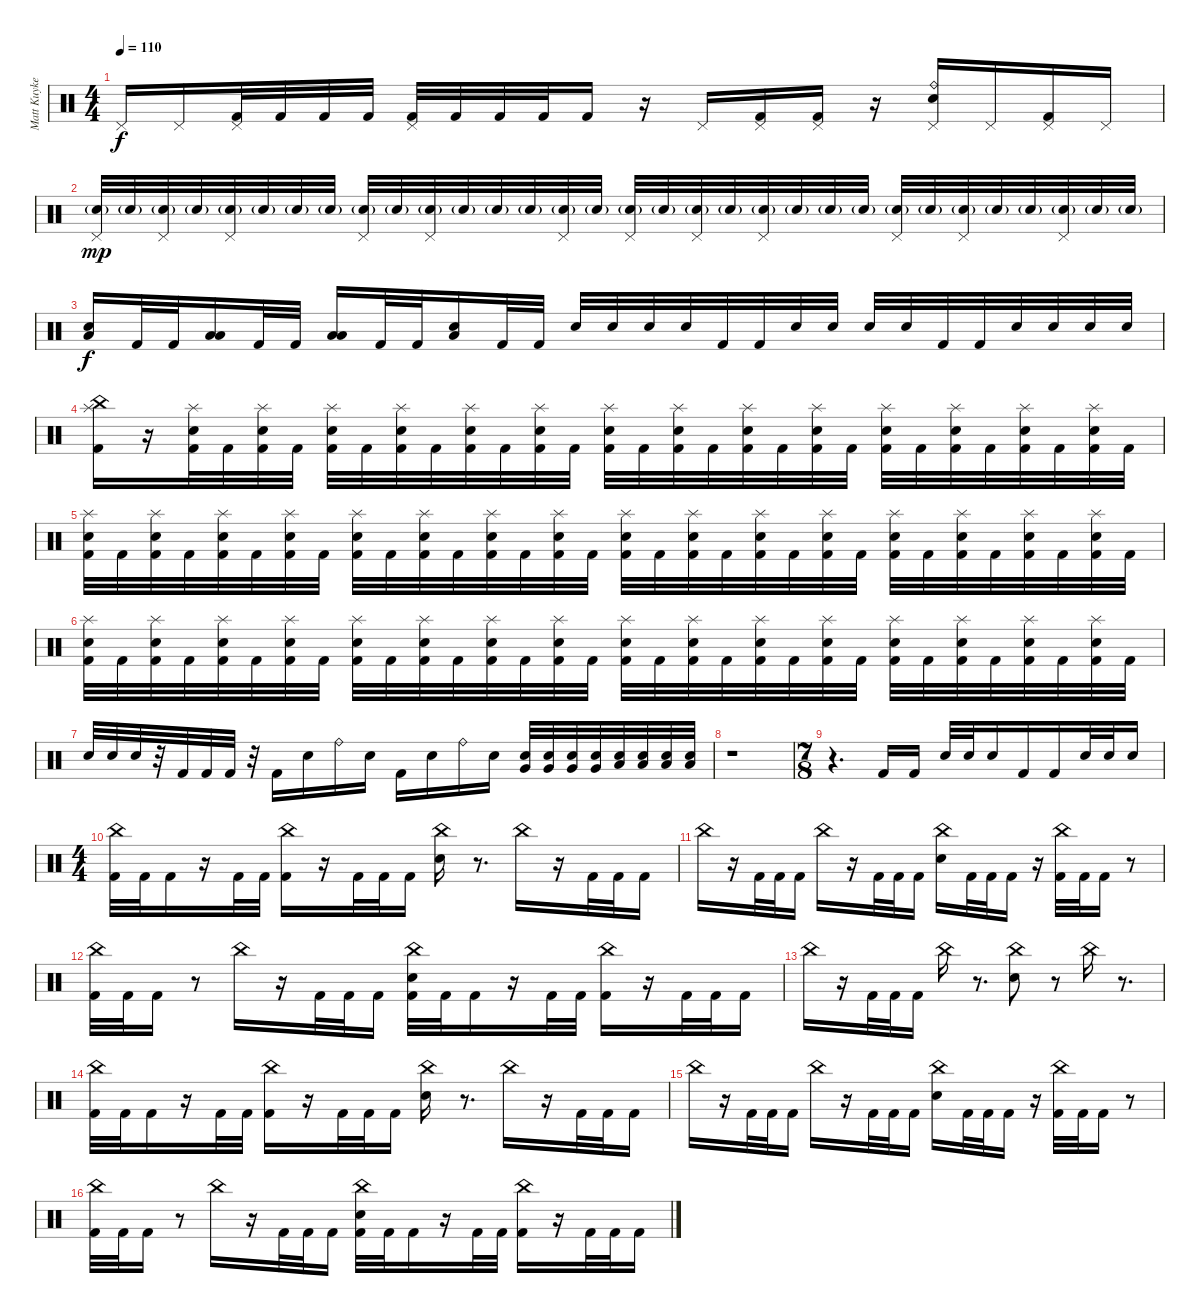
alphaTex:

\track ("Matt Kuykendall (Drums)" "Matt Kuyke") {instrument percussion}
\staff {score}
\articulation defaults
\ts (4 4)
\tempo 110
\clef neutral
\ks c "Pedal Hi-Hat (hit)".16{dy f} "Pedal Hi-Hat (hit)".16
("Pedal Hi-Hat (hit)" "Kick (hit) 2").32 "Kick (hit) 2".32 "Kick (hit) 2".32 "Kick (hit) 2".32 ("Pedal Hi-Hat (hit)" "Kick (hit) 2").32 "Kick (hit) 2".32 "Kick (hit) 2".32 "Kick (hit) 2".32 "Kick (hit) 2".16 r.16 "Pedal Hi-Hat (hit)".16 ("Pedal Hi-Hat (hit)" "Kick (hit) 2").16 ("Pedal Hi-Hat (hit)" "Kick (hit) 2").16 r.16 ("Ride (bell)" "Pedal Hi-Hat (hit)" "Snare (hit) 2").16 "Pedal Hi-Hat (hit)".16 ("Pedal Hi-Hat (hit)" "Kick (hit) 2").16 "Pedal Hi-Hat (hit)".16 |
("Pedal Hi-Hat (hit)" "Snare (hit) 2"{g}).32{dy mp} "Snare (hit) 2"{g}.32 ("Pedal Hi-Hat (hit)" "Snare (hit) 2"{g}).32 "Snare (hit) 2"{g}.32 ("Pedal Hi-Hat (hit)" "Snare (hit) 2"{g}).32 "Snare (hit) 2"{g}.32 "Snare (hit) 2"{g}.32 "Snare (hit) 2"{g}.32 ("Pedal Hi-Hat (hit)" "Snare (hit) 2"{g}).32 "Snare (hit) 2"{g}.32 ("Pedal Hi-Hat (hit)" "Snare (hit) 2"{g}).32 "Snare (hit) 2"{g}.32 "Snare (hit) 2"{g}.32 "Snare (hit) 2"{g}.32 ("Pedal Hi-Hat (hit)" "Snare (hit) 2"{g}).32 "Snare (hit) 2"{g}.32 ("Pedal Hi-Hat (hit)" "Snare (hit) 2"{g}).32 "Snare (hit) 2"{g}.32 ("Pedal Hi-Hat (hit)" "Snare (hit) 2"{g}).32 "Snare (hit) 2"{g}.32 ("Pedal Hi-Hat (hit)" "Snare (hit) 2"{g}).32 "Snare (hit) 2"{g}.32 "Snare (hit) 2"{g}.32 "Snare (hit) 2"{g}.32 ("Pedal Hi-Hat (hit)" "Snare (hit) 2"{g}).32 "Snare (hit) 2"{g}.32 ("Pedal Hi-Hat (hit)" "Snare (hit) 2"{g}).32 "Snare (hit) 2"{g}.32 "Snare (hit) 2"{g}.32 ("Pedal Hi-Hat (hit)" "Snare (hit) 2"{g}).32 "Snare (hit) 2"{g}.32 "Snare (hit) 2"{g}.32 |
("Low Tom (hit)" "Snare (hit) 2").16{dy f} "Kick (hit) 2".32 "Kick (hit) 2".32 ("Low Tom (hit)" "Low Floor Tom (hit)").16 "Kick (hit) 2".32 "Kick (hit) 2".32 ("Low Floor Tom (hit)" "Low Floor Tom (hit)").16 "Kick (hit) 2".32 "Kick (hit) 2".32 ("Snare (hit) 2" "Low Floor Tom (hit)").16 "Kick (hit) 2".32 "Kick (hit) 2".32 "Snare (hit) 2".32 "Snare (hit) 2".32 "Snare (hit) 2".32 "Snare (hit) 2".32 "Kick (hit) 2".32 "Kick (hit) 2".32 "Snare (hit) 2".32 "Snare (hit) 2".32 "Snare (hit) 2".32 "Snare (hit) 2".32 "Kick (hit) 2".32 "Kick (hit) 2".32 "Snare (hit) 2".32 "Snare (hit) 2".32 "Snare (hit) 2".32 "Snare (hit) 2".32 |
("China (hit)" "Splash (hit)" "Kick (hit) 2").16 r.16 ("Splash (hit)" "Snare (hit) 2" "Kick (hit) 2").32 "Kick (hit) 2".32 ("Splash (hit)" "Snare (hit) 2" "Kick (hit) 2").32 "Kick (hit) 2".32 ("Splash (hit)" "Snare (hit) 2" "Kick (hit) 2").32 "Kick (hit) 2".32 ("Splash (hit)" "Snare (hit) 2" "Kick (hit) 2").32 "Kick (hit) 2".32 ("Splash (hit)" "Snare (hit) 2" "Kick (hit) 2").32 "Kick (hit) 2".32 ("Splash (hit)" "Snare (hit) 2" "Kick (hit) 2").32 "Kick (hit) 2".32 ("Splash (hit)" "Snare (hit) 2" "Kick (hit) 2").32 "Kick (hit) 2".32 ("Splash (hit)" "Snare (hit) 2" "Kick (hit) 2").32 "Kick (hit) 2".32 ("Splash (hit)" "Snare (hit) 2" "Kick (hit) 2").32 "Kick (hit) 2".32 ("Splash (hit)" "Snare (hit) 2" "Kick (hit) 2").32 "Kick (hit) 2".32 ("Splash (hit)" "Snare (hit) 2" "Kick (hit) 2").32 "Kick (hit) 2".32 ("Splash (hit)" "Snare (hit) 2" "Kick (hit) 2").32 "Kick (hit) 2".32 ("Splash (hit)" "Snare (hit) 2" "Kick (hit) 2").32 "Kick (hit) 2".32 ("Splash (hit)" "Snare (hit) 2" "Kick (hit) 2").32 "Kick (hit) 2".32 |
("Splash (hit)" "Snare (hit) 2" "Kick (hit) 2").32 "Kick (hit) 2".32 ("Splash (hit)" "Snare (hit) 2" "Kick (hit) 2").32 "Kick (hit) 2".32 ("Splash (hit)" "Snare (hit) 2" "Kick (hit) 2").32 "Kick (hit) 2".32 ("Splash (hit)" "Snare (hit) 2" "Kick (hit) 2").32 "Kick (hit) 2".32 ("Splash (hit)" "Snare (hit) 2" "Kick (hit) 2").32 "Kick (hit) 2".32 ("Splash (hit)" "Snare (hit) 2" "Kick (hit) 2").32 "Kick (hit) 2".32 ("Splash (hit)" "Snare (hit) 2" "Kick (hit) 2").32 "Kick (hit) 2".32 ("Splash (hit)" "Snare (hit) 2" "Kick (hit) 2").32 "Kick (hit) 2".32 ("Splash (hit)" "Snare (hit) 2" "Kick (hit) 2").32 "Kick (hit) 2".32 ("Splash (hit)" "Snare (hit) 2" "Kick (hit) 2").32 "Kick (hit) 2".32 ("Splash (hit)" "Snare (hit) 2" "Kick (hit) 2").32 "Kick (hit) 2".32 ("Splash (hit)" "Snare (hit) 2" "Kick (hit) 2").32 "Kick (hit) 2".32 ("Splash (hit)" "Snare (hit) 2" "Kick (hit) 2").32 "Kick (hit) 2".32 ("Splash (hit)" "Snare (hit) 2" "Kick (hit) 2").32 "Kick (hit) 2".32 ("Splash (hit)" "Snare (hit) 2" "Kick (hit) 2").32 "Kick (hit) 2".32 ("Splash (hit)" "Snare (hit) 2" "Kick (hit) 2").32 "Kick (hit) 2".32 |
("Splash (hit)" "Snare (hit) 2" "Kick (hit) 2").32 "Kick (hit) 2".32 ("Splash (hit)" "Snare (hit) 2" "Kick (hit) 2").32 "Kick (hit) 2".32 ("Splash (hit)" "Snare (hit) 2" "Kick (hit) 2").32 "Kick (hit) 2".32 ("Splash (hit)" "Snare (hit) 2" "Kick (hit) 2").32 "Kick (hit) 2".32 ("Splash (hit)" "Snare (hit) 2" "Kick (hit) 2").32 "Kick (hit) 2".32 ("Splash (hit)" "Snare (hit) 2" "Kick (hit) 2").32 "Kick (hit) 2".32 ("Splash (hit)" "Snare (hit) 2" "Kick (hit) 2").32 "Kick (hit) 2".32 ("Splash (hit)" "Snare (hit) 2" "Kick (hit) 2").32 "Kick (hit) 2".32 ("Splash (hit)" "Snare (hit) 2" "Kick (hit) 2").32 "Kick (hit) 2".32 ("Splash (hit)" "Snare (hit) 2" "Kick (hit) 2").32 "Kick (hit) 2".32 ("Splash (hit)" "Snare (hit) 2" "Kick (hit) 2").32 "Kick (hit) 2".32 ("Splash (hit)" "Snare (hit) 2" "Kick (hit) 2").32 "Kick (hit) 2".32 ("Splash (hit)" "Snare (hit) 2" "Kick (hit) 2").32 "Kick (hit) 2".32 ("Splash (hit)" "Snare (hit) 2" "Kick (hit) 2").32 "Kick (hit) 2".32 ("Splash (hit)" "Snare (hit) 2" "Kick (hit) 2").32 "Kick (hit) 2".32 ("Splash (hit)" "Snare (hit) 2" "Kick (hit) 2").32 "Kick (hit) 2".32 |
"Snare (hit) 2".32 "Snare (hit) 2".32 "Snare (hit) 2".32 r.32 "Kick (hit) 2".32 "Kick (hit) 2".32 "Kick (hit) 2".32 r.32 "Kick (hit) 2".16 "Snare (hit) 2".16 "Ride (bell)".16 "Snare (hit) 2".16 "Kick (hit) 2".16 "Snare (hit) 2".16 "Ride (bell)".16 "Snare (hit) 2".16 ("Very Low Tom (hit)" "Snare (hit) 2").32 ("Very Low Tom (hit)" "Snare (hit) 2").32 ("Very Low Tom (hit)" "Snare (hit) 2").32 ("Very Low Tom (hit)" "Snare (hit) 2").32 ("Low Floor Tom (hit)" "Snare (hit) 2").32 ("Low Floor Tom (hit)" "Snare (hit) 2").32 ("Low Floor Tom (hit)" "Snare (hit) 2").32 ("Low Floor Tom (hit)" "Snare (hit) 2").32 |
r.1 |
\ts (7 8)
r.4{d} "Kick (hit) 2".16 "Kick (hit) 2".16 "Snare (hit) 2".32 "Snare (hit) 2".32 "Snare (hit) 2".16 "Kick (hit) 2".16 "Kick (hit) 2".16 "Snare (hit) 2".32 "Snare (hit) 2".32 "Snare (hit) 2".16 |
\ts (4 4)
("China (hit)" "Kick (hit) 2").32 "Kick (hit) 2".32 "Kick (hit) 2".16 r.16 "Kick (hit) 2".32 "Kick (hit) 2".32 ("China (hit)" "Kick (hit) 2").16 r.16 "Kick (hit) 2".32 "Kick (hit) 2".32 "Kick (hit) 2".16 ("China (hit)" "Snare (hit) 2").16 r.8{d} "China (hit)".16 r.16 "Kick (hit) 2".32 "Kick (hit) 2".32 "Kick (hit) 2".16 |
"China (hit)".16 r.16 "Kick (hit) 2".32 "Kick (hit) 2".32 "Kick (hit) 2".16 "China (hit)".16 r.16 "Kick (hit) 2".32 "Kick (hit) 2".32 "Kick (hit) 2".16 ("China (hit)" "Snare (hit) 2").16 "Kick (hit) 2".32 "Kick (hit) 2".32 "Kick (hit) 2".16 r.16 ("China (hit)" "Kick (hit) 2").32 "Kick (hit) 2".32 "Kick (hit) 2".16 r.8 |
("China (hit)" "Kick (hit) 2").32 "Kick (hit) 2".32 "Kick (hit) 2".16 r.8 "China (hit)".16 r.16 "Kick (hit) 2".32 "Kick (hit) 2".32 "Kick (hit) 2".16 ("China (hit)" "Snare (hit) 2" "Kick (hit) 2").32 "Kick (hit) 2".32 "Kick (hit) 2".16 r.16 "Kick (hit) 2".32 "Kick (hit) 2".32 ("China (hit)" "Kick (hit) 2").16 r.16 "Kick (hit) 2".32 "Kick (hit) 2".32 "Kick (hit) 2".16 |
"China (hit)".16 r.16 "Kick (hit) 2".32 "Kick (hit) 2".32 "Kick (hit) 2".16 "China (hit)".16 r.8{d} ("China (hit)" "Snare (hit) 2").8 r.8 "China (hit)".16 r.8{d} |
("China (hit)" "Kick (hit) 2").32 "Kick (hit) 2".32 "Kick (hit) 2".16 r.16 "Kick (hit) 2".32 "Kick (hit) 2".32 ("China (hit)" "Kick (hit) 2").16 r.16 "Kick (hit) 2".32 "Kick (hit) 2".32 "Kick (hit) 2".16 ("China (hit)" "Snare (hit) 2").16 r.8{d} "China (hit)".16 r.16 "Kick (hit) 2".32 "Kick (hit) 2".32 "Kick (hit) 2".16 |
"China (hit)".16 r.16 "Kick (hit) 2".32 "Kick (hit) 2".32 "Kick (hit) 2".16 "China (hit)".16 r.16 "Kick (hit) 2".32 "Kick (hit) 2".32 "Kick (hit) 2".16 ("China (hit)" "Snare (hit) 2").16 "Kick (hit) 2".32 "Kick (hit) 2".32 "Kick (hit) 2".16 r.16 ("China (hit)" "Kick (hit) 2").32 "Kick (hit) 2".32 "Kick (hit) 2".16 r.8 |
("China (hit)" "Kick (hit) 2").32 "Kick (hit) 2".32 "Kick (hit) 2".16 r.8 "China (hit)".16 r.16 "Kick (hit) 2".32 "Kick (hit) 2".32 "Kick (hit) 2".16 ("China (hit)" "Snare (hit) 2" "Kick (hit) 2").32 "Kick (hit) 2".32 "Kick (hit) 2".16 r.16 "Kick (hit) 2".32 "Kick (hit) 2".32 ("China (hit)" "Kick (hit) 2").16 r.16 "Kick (hit) 2".32 "Kick (hit) 2".32 "Kick (hit) 2".16
